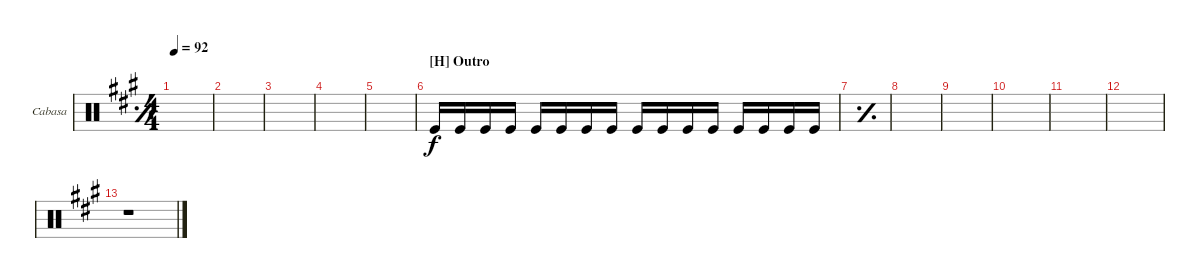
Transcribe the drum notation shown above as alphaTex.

\defaultSystemsLayout 4
\bracketExtendMode groupsimilarinstruments
\firstSystemTrackNameOrientation horizontal
\otherSystemsTrackNameOrientation horizontal
\track ("Cabasa" "Cabasa") {instrument percussion}
\staff {score}
\articulation defaults
\ts (4 4)
\tempo 92
\clef neutral
\simile simple
\ks a
|
|
|
|
|
\section ("H" "Outro")
\simile none "Kick (hit)".16 "Kick (hit)".16 "Kick (hit)".16 "Kick (hit)".16 "Kick (hit)".16 "Kick (hit)".16 "Kick (hit)".16 "Kick (hit)".16 "Kick (hit)".16 "Kick (hit)".16 "Kick (hit)".16 "Kick (hit)".16 "Kick (hit)".16 "Kick (hit)".16 "Kick (hit)".16 "Kick (hit)".16
|
\simile simple
|
|
|
|
|
|
r.1
